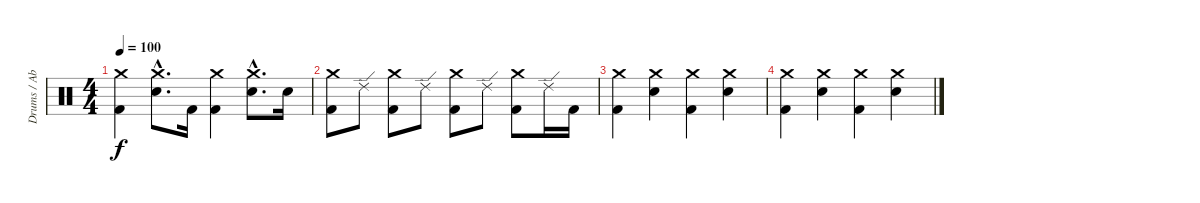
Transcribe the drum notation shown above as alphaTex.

\track ("Drums / Abe Cunningham" "Drums / Ab") {instrument percussion}
\staff {score}
\articulation defaults
\ts (4 4)
\tempo 100
\clef neutral
\ks c
("Crash medium (hit)" "Kick (hit) 2").4{dy f} ("Crash medium (hit)"{hac} "Electric Snare (hit)"{hac}).8{d} "Kick (hit) 2".16 ("Crash medium (hit)" "Kick (hit) 2").4 ("Crash medium (hit)"{hac} "Electric Snare (hit)"{hac}).8{d} "Electric Snare (hit)".16 |
("Crash medium (hit)" "Kick (hit) 2").8 "Ride (edge) 2".8 ("Crash medium (hit)" "Kick (hit) 2").8 "Ride (edge) 2".8 ("Crash medium (hit)" "Kick (hit) 2").8 "Ride (edge) 2".8 ("Crash medium (hit)" "Kick (hit) 2").8 "Ride (edge) 2".16 "Kick (hit) 2".16 |
("Crash medium (hit)" "Kick (hit) 2").4 ("Crash medium (hit)" "Electric Snare (hit)").4 ("Crash medium (hit)" "Kick (hit) 2").4 ("Crash medium (hit)" "Electric Snare (hit)").4 |
("Crash medium (hit)" "Kick (hit) 2").4 ("Crash medium (hit)" "Electric Snare (hit)").4 ("Crash medium (hit)" "Kick (hit) 2").4 ("Crash medium (hit)" "Electric Snare (hit)").4
